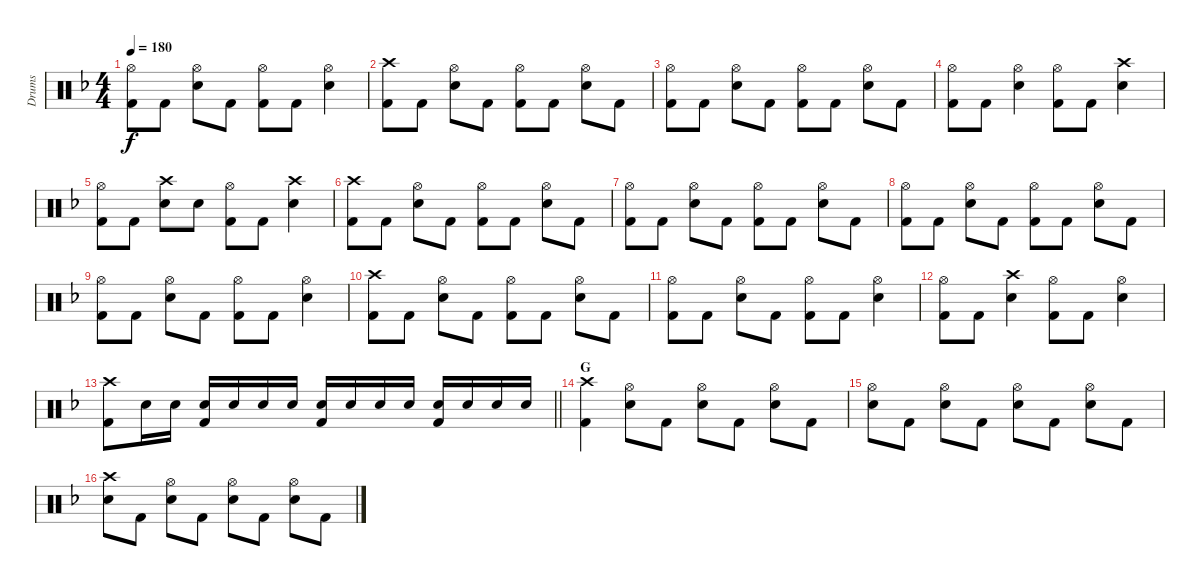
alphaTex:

\track ("Drums" "Drums") {instrument percussion}
\staff {score}
\articulation defaults
\ts (4 4)
\tempo 180
\clef neutral
\ks dminor
("Hi-Hat (open)" "Kick (hit) 2").8{dy f} "Kick (hit) 2".8 ("Hi-Hat (open)" "Snare (hit) 2").8 "Kick (hit) 2".8 ("Hi-Hat (open)" "Kick (hit) 2").8 "Kick (hit) 2".8 ("Hi-Hat (open)" "Snare (hit) 2").4 |
("Crash high (hit)" "Kick (hit) 2").8 "Kick (hit) 2".8 ("Hi-Hat (open)" "Snare (hit) 2").8 "Kick (hit) 2".8 ("Hi-Hat (open)" "Kick (hit) 2").8 "Kick (hit) 2".8 ("Hi-Hat (open)" "Snare (hit) 2").8 "Kick (hit) 2".8 |
("Hi-Hat (open)" "Kick (hit) 2").8 "Kick (hit) 2".8 ("Hi-Hat (open)" "Snare (hit) 2").8 "Kick (hit) 2".8 ("Hi-Hat (open)" "Kick (hit) 2").8 "Kick (hit) 2".8 ("Hi-Hat (open)" "Snare (hit) 2").8 "Kick (hit) 2".8 |
("Hi-Hat (open)" "Kick (hit) 2").8 "Kick (hit) 2".8 ("Hi-Hat (open)" "Snare (hit) 2").4 ("Hi-Hat (open)" "Kick (hit) 2").8 "Kick (hit) 2".8 ("Crash high (hit)" "Snare (hit) 2").4 |
("Hi-Hat (open)" "Kick (hit) 2").8 "Kick (hit) 2".8 ("Crash high (hit)" "Snare (hit) 2").8 "Snare (hit) 2".8 ("Hi-Hat (open)" "Kick (hit) 2").8 "Kick (hit) 2".8 ("Crash high (hit)" "Snare (hit) 2").4 |
("Crash high (hit)" "Kick (hit) 2").8 "Kick (hit) 2".8 ("Hi-Hat (open)" "Snare (hit) 2").8 "Kick (hit) 2".8 ("Hi-Hat (open)" "Kick (hit) 2").8 "Kick (hit) 2".8 ("Hi-Hat (open)" "Snare (hit) 2").8 "Kick (hit) 2".8 |
("Hi-Hat (open)" "Kick (hit) 2").8 "Kick (hit) 2".8 ("Hi-Hat (open)" "Snare (hit) 2").8 "Kick (hit) 2".8 ("Hi-Hat (open)" "Kick (hit) 2").8 "Kick (hit) 2".8 ("Hi-Hat (open)" "Snare (hit) 2").8 "Kick (hit) 2".8 |
("Hi-Hat (open)" "Kick (hit) 2").8 "Kick (hit) 2".8 ("Hi-Hat (open)" "Snare (hit) 2").8 "Kick (hit) 2".8 ("Hi-Hat (open)" "Kick (hit) 2").8 "Kick (hit) 2".8 ("Hi-Hat (open)" "Snare (hit) 2").8 "Kick (hit) 2".8 |
("Hi-Hat (open)" "Kick (hit) 2").8 "Kick (hit) 2".8 ("Hi-Hat (open)" "Snare (hit) 2").8 "Kick (hit) 2".8 ("Hi-Hat (open)" "Kick (hit) 2").8 "Kick (hit) 2".8 ("Hi-Hat (open)" "Snare (hit) 2").4 |
("Crash high (hit)" "Kick (hit) 2").8 "Kick (hit) 2".8 ("Hi-Hat (open)" "Snare (hit) 2").8 "Kick (hit) 2".8 ("Hi-Hat (open)" "Kick (hit) 2").8 "Kick (hit) 2".8 ("Hi-Hat (open)" "Snare (hit) 2").8 "Kick (hit) 2".8 |
("Hi-Hat (open)" "Kick (hit) 2").8 "Kick (hit) 2".8 ("Hi-Hat (open)" "Snare (hit) 2").8 "Kick (hit) 2".8 ("Hi-Hat (open)" "Kick (hit) 2").8 "Kick (hit) 2".8 ("Hi-Hat (open)" "Snare (hit) 2").4 |
("Hi-Hat (open)" "Kick (hit) 2").8 "Kick (hit) 2".8 ("Crash high (hit)" "Snare (hit) 2").4 ("Hi-Hat (open)" "Kick (hit) 2").8 "Kick (hit) 2".8 ("Hi-Hat (open)" "Snare (hit) 2").4 |
\barLineRight lightlight
("Crash high (hit)" "Kick (hit) 2").8 "Snare (hit) 2".16 "Snare (hit) 2".16 ("Snare (hit) 2" "Kick (hit) 2").16 "Snare (hit) 2".16 "Snare (hit) 2".16 "Snare (hit) 2".16 ("Snare (hit) 2" "Kick (hit) 2").16 "Snare (hit) 2".16 "Snare (hit) 2".16 "Snare (hit) 2".16 ("Snare (hit) 2" "Kick (hit) 2").16 "Snare (hit) 2".16 "Snare (hit) 2".16 "Snare (hit) 2".16 |
\section ("" "G")
("Crash high (hit)" "Kick (hit) 2").4 ("Hi-Hat (open)" "Snare (hit) 2").8 "Kick (hit) 2".8 ("Hi-Hat (open)" "Snare (hit) 2").8 "Kick (hit) 2".8 ("Hi-Hat (open)" "Snare (hit) 2").8 "Kick (hit) 2".8 |
("Hi-Hat (open)" "Snare (hit) 2").8 "Kick (hit) 2".8 ("Hi-Hat (open)" "Snare (hit) 2").8 "Kick (hit) 2".8 ("Hi-Hat (open)" "Snare (hit) 2").8 "Kick (hit) 2".8 ("Hi-Hat (open)" "Snare (hit) 2").8 "Kick (hit) 2".8 |
("Crash high (hit)" "Snare (hit) 2").8 "Kick (hit) 2".8 ("Hi-Hat (open)" "Snare (hit) 2").8 "Kick (hit) 2".8 ("Hi-Hat (open)" "Snare (hit) 2").8 "Kick (hit) 2".8 ("Hi-Hat (open)" "Snare (hit) 2").8 "Kick (hit) 2".8
